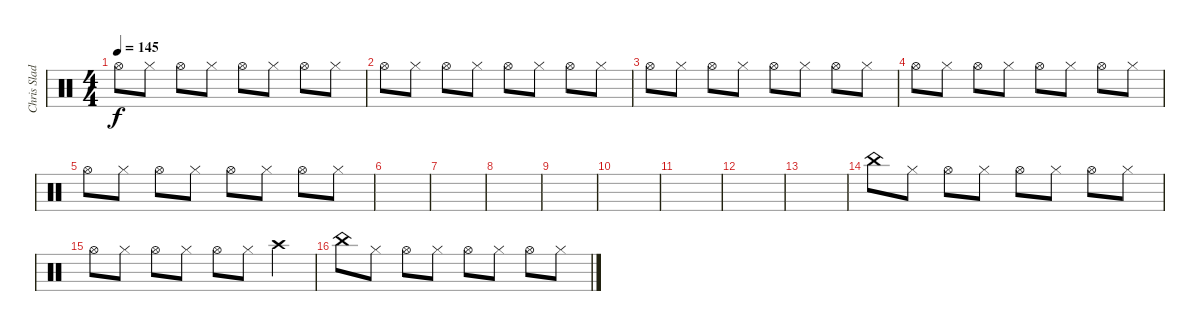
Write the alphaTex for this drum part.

\track ("Chris Slade" "Chris Slad") {instrument percussion}
\staff {score}
\articulation defaults
\ts (4 4)
\tempo 145
\clef neutral
\ks c "Hi-Hat (open)".8{dy f} "Hi-Hat (closed)".8 "Hi-Hat (open)".8 "Hi-Hat (closed)".8 "Hi-Hat (open)".8 "Hi-Hat (closed)".8 "Hi-Hat (open)".8 "Hi-Hat (closed)".8
|
"Hi-Hat (open)".8 "Hi-Hat (closed)".8 "Hi-Hat (open)".8 "Hi-Hat (closed)".8 "Hi-Hat (open)".8 "Hi-Hat (closed)".8 "Hi-Hat (open)".8 "Hi-Hat (closed)".8 |
"Hi-Hat (open)".8 "Hi-Hat (closed)".8 "Hi-Hat (open)".8 "Hi-Hat (closed)".8 "Hi-Hat (open)".8 "Hi-Hat (closed)".8 "Hi-Hat (open)".8 "Hi-Hat (closed)".8 |
"Hi-Hat (open)".8 "Hi-Hat (closed)".8 "Hi-Hat (open)".8 "Hi-Hat (closed)".8 "Hi-Hat (open)".8 "Hi-Hat (closed)".8 "Hi-Hat (open)".8 "Hi-Hat (closed)".8 |
"Hi-Hat (open)".8 "Hi-Hat (closed)".8 "Hi-Hat (open)".8 "Hi-Hat (closed)".8 "Hi-Hat (open)".8 "Hi-Hat (closed)".8 "Hi-Hat (open)".8 "Hi-Hat (closed)".8 |
|
|
|
|
|
|
|
|
"China (hit)".8 "Hi-Hat (closed)".8 "Hi-Hat (open)".8 "Hi-Hat (closed)".8 "Hi-Hat (open)".8 "Hi-Hat (closed)".8 "Hi-Hat (open)".8 "Hi-Hat (closed)".8 |
"Hi-Hat (open)".8 "Hi-Hat (closed)".8 "Hi-Hat (open)".8 "Hi-Hat (closed)".8 "Hi-Hat (open)".8 "Hi-Hat (closed)".8 "Crash high (hit)".4 |
"China (hit)".8 "Hi-Hat (closed)".8 "Hi-Hat (open)".8 "Hi-Hat (closed)".8 "Hi-Hat (open)".8 "Hi-Hat (closed)".8 "Hi-Hat (open)".8 "Hi-Hat (closed)".8
